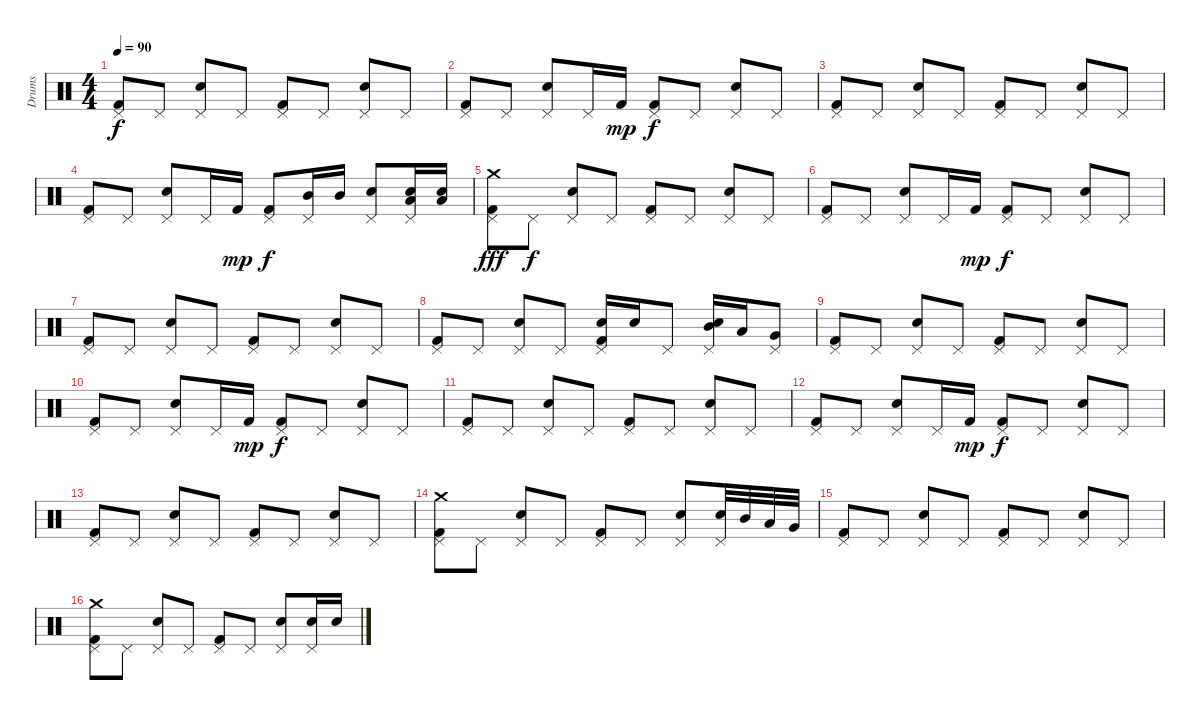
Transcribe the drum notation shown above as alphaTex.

\track ("Drums" "Drums") {instrument percussion}
\staff {score}
\articulation defaults
\ts (4 4)
\tempo 90
\clef neutral
\ks c
("Pedal Hi-Hat (hit)" "Kick (hit) 2").8{dy f} "Pedal Hi-Hat (hit)".8 ("Pedal Hi-Hat (hit)" "Electric Snare (hit)").8 "Pedal Hi-Hat (hit)".8 ("Kick (hit) 2" "Pedal Hi-Hat (hit)").8 "Pedal Hi-Hat (hit)".8 ("Electric Snare (hit)" "Pedal Hi-Hat (hit)").8 "Pedal Hi-Hat (hit)".8 |
("Pedal Hi-Hat (hit)" "Kick (hit) 2").8 "Pedal Hi-Hat (hit)".8 ("Pedal Hi-Hat (hit)" "Electric Snare (hit)").8 "Pedal Hi-Hat (hit)".16 "Kick (hit) 2".16{dy mp} ("Kick (hit) 2" "Pedal Hi-Hat (hit)").8{dy f} "Pedal Hi-Hat (hit)".8 ("Electric Snare (hit)" "Pedal Hi-Hat (hit)").8 "Pedal Hi-Hat (hit)".8 |
("Pedal Hi-Hat (hit)" "Kick (hit) 2").8 "Pedal Hi-Hat (hit)".8 ("Pedal Hi-Hat (hit)" "Electric Snare (hit)").8 "Pedal Hi-Hat (hit)".8 ("Kick (hit) 2" "Pedal Hi-Hat (hit)").8 "Pedal Hi-Hat (hit)".8 ("Electric Snare (hit)" "Pedal Hi-Hat (hit)").8 "Pedal Hi-Hat (hit)".8 |
("Pedal Hi-Hat (hit)" "Kick (hit) 2").8 "Pedal Hi-Hat (hit)".8 ("Pedal Hi-Hat (hit)" "Electric Snare (hit)").8 "Pedal Hi-Hat (hit)".16 "Kick (hit) 2".16{dy mp} ("Pedal Hi-Hat (hit)" "Kick (hit) 2").8{dy f} ("Pedal Hi-Hat (hit)" "Mid Tom (hit)").16 "Mid Tom (hit)".16 ("Electric Snare (hit)" "Pedal Hi-Hat (hit)").8 ("Pedal Hi-Hat (hit)" "Electric Snare (hit)" "Low Tom (hit)").16 ("Electric Snare (hit)" "Low Tom (hit)").16 |
("Pedal Hi-Hat (hit)" "Kick (hit) 2" "Crash medium (hit)").8{dy fff} "Pedal Hi-Hat (hit)".8{dy f} ("Pedal Hi-Hat (hit)" "Electric Snare (hit)").8 "Pedal Hi-Hat (hit)".8 ("Kick (hit) 2" "Pedal Hi-Hat (hit)").8 "Pedal Hi-Hat (hit)".8 ("Electric Snare (hit)" "Pedal Hi-Hat (hit)").8 "Pedal Hi-Hat (hit)".8 |
("Pedal Hi-Hat (hit)" "Kick (hit) 2").8 "Pedal Hi-Hat (hit)".8 ("Pedal Hi-Hat (hit)" "Electric Snare (hit)").8 "Pedal Hi-Hat (hit)".16 "Kick (hit) 2".16{dy mp} ("Kick (hit) 2" "Pedal Hi-Hat (hit)").8{dy f} "Pedal Hi-Hat (hit)".8 ("Electric Snare (hit)" "Pedal Hi-Hat (hit)").8 "Pedal Hi-Hat (hit)".8 |
("Pedal Hi-Hat (hit)" "Kick (hit) 2").8 "Pedal Hi-Hat (hit)".8 ("Pedal Hi-Hat (hit)" "Electric Snare (hit)").8 "Pedal Hi-Hat (hit)".8 ("Kick (hit) 2" "Pedal Hi-Hat (hit)").8 "Pedal Hi-Hat (hit)".8 ("Electric Snare (hit)" "Pedal Hi-Hat (hit)").8 "Pedal Hi-Hat (hit)".8 |
("Kick (hit) 2" "Pedal Hi-Hat (hit)").8 "Pedal Hi-Hat (hit)".8 ("Electric Snare (hit)" "Pedal Hi-Hat (hit)").8 "Pedal Hi-Hat (hit)".8 ("Kick (hit) 2" "Pedal Hi-Hat (hit)" "Electric Snare (hit)").16 "Electric Snare (hit)".16 "Pedal Hi-Hat (hit)".8 ("Electric Snare (hit)" "Pedal Hi-Hat (hit)" "Mid Tom (hit)").16 "Low Tom (hit)".16 ("Pedal Hi-Hat (hit)" "Very Low Tom (hit)").8 |
("Pedal Hi-Hat (hit)" "Kick (hit) 2").8 "Pedal Hi-Hat (hit)".8 ("Pedal Hi-Hat (hit)" "Electric Snare (hit)").8 "Pedal Hi-Hat (hit)".8 ("Kick (hit) 2" "Pedal Hi-Hat (hit)").8 "Pedal Hi-Hat (hit)".8 ("Electric Snare (hit)" "Pedal Hi-Hat (hit)").8 "Pedal Hi-Hat (hit)".8 |
("Pedal Hi-Hat (hit)" "Kick (hit) 2").8 "Pedal Hi-Hat (hit)".8 ("Pedal Hi-Hat (hit)" "Electric Snare (hit)").8 "Pedal Hi-Hat (hit)".16 "Kick (hit) 2".16{dy mp} ("Kick (hit) 2" "Pedal Hi-Hat (hit)").8{dy f} "Pedal Hi-Hat (hit)".8 ("Electric Snare (hit)" "Pedal Hi-Hat (hit)").8 "Pedal Hi-Hat (hit)".8 |
("Pedal Hi-Hat (hit)" "Kick (hit) 2").8 "Pedal Hi-Hat (hit)".8 ("Pedal Hi-Hat (hit)" "Electric Snare (hit)").8 "Pedal Hi-Hat (hit)".8 ("Kick (hit) 2" "Pedal Hi-Hat (hit)").8 "Pedal Hi-Hat (hit)".8 ("Electric Snare (hit)" "Pedal Hi-Hat (hit)").8 "Pedal Hi-Hat (hit)".8 |
("Pedal Hi-Hat (hit)" "Kick (hit) 2").8 "Pedal Hi-Hat (hit)".8 ("Pedal Hi-Hat (hit)" "Electric Snare (hit)").8 "Pedal Hi-Hat (hit)".16 "Kick (hit) 2".16{dy mp} ("Kick (hit) 2" "Pedal Hi-Hat (hit)").8{dy f} "Pedal Hi-Hat (hit)".8 ("Electric Snare (hit)" "Pedal Hi-Hat (hit)").8 "Pedal Hi-Hat (hit)".8 |
("Kick (hit) 2" "Pedal Hi-Hat (hit)").8 "Pedal Hi-Hat (hit)".8 ("Pedal Hi-Hat (hit)" "Electric Snare (hit)").8 "Pedal Hi-Hat (hit)".8 ("Pedal Hi-Hat (hit)" "Kick (hit) 2").8 "Pedal Hi-Hat (hit)".8 ("Pedal Hi-Hat (hit)" "Electric Snare (hit)").8 "Pedal Hi-Hat (hit)".8 |
("Pedal Hi-Hat (hit)" "Kick (hit) 2" "Crash medium (hit)").8 "Pedal Hi-Hat (hit)".8 ("Electric Snare (hit)" "Pedal Hi-Hat (hit)").8 "Pedal Hi-Hat (hit)".8 ("Pedal Hi-Hat (hit)" "Kick (hit) 2").8 "Pedal Hi-Hat (hit)".8 ("Pedal Hi-Hat (hit)" "Electric Snare (hit)").8 ("Pedal Hi-Hat (hit)" "Electric Snare (hit)").32 "Mid Tom (hit)".32 "Low Tom (hit)".32 "Very Low Tom (hit)".32 |
("Pedal Hi-Hat (hit)" "Kick (hit) 2").8 "Pedal Hi-Hat (hit)".8 ("Pedal Hi-Hat (hit)" "Electric Snare (hit)").8 "Pedal Hi-Hat (hit)".8 ("Kick (hit) 2" "Pedal Hi-Hat (hit)").8 "Pedal Hi-Hat (hit)".8 ("Electric Snare (hit)" "Pedal Hi-Hat (hit)").8 "Pedal Hi-Hat (hit)".8 |
("Kick (hit) 2" "Pedal Hi-Hat (hit)" "Crash medium (hit)").8 "Pedal Hi-Hat (hit)".8 ("Electric Snare (hit)" "Pedal Hi-Hat (hit)").8 "Pedal Hi-Hat (hit)".8 ("Kick (hit) 2" "Pedal Hi-Hat (hit)").8 "Pedal Hi-Hat (hit)".8 ("Electric Snare (hit)" "Pedal Hi-Hat (hit)").8 ("Electric Snare (hit)" "Pedal Hi-Hat (hit)").16 "Electric Snare (hit)".16
